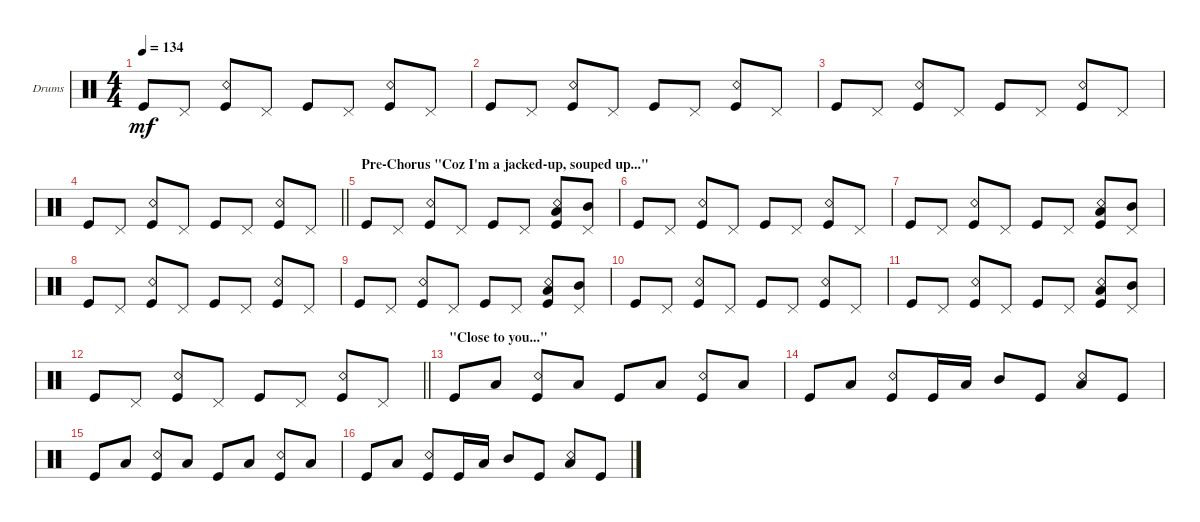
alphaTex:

\bracketExtendMode groupsimilarinstruments
\firstSystemTrackNameOrientation horizontal
\otherSystemsTrackNameOrientation horizontal
\track ("Nicky Bomba" "Drums") {instrument percussion}
\staff {score}
\articulation defaults
\ts (4 4)
\tempo 134
\clef neutral
\scale
0.333333
\ks c "Kick (hit)".8{dy mf} "Pedal Hi-Hat (hit)".8
("Kick (hit)" "Snare (rim shot)").8 "Pedal Hi-Hat (hit)".8 "Kick (hit)".8 "Pedal Hi-Hat (hit)".8 ("Kick (hit)" "Snare (rim shot)").8 "Pedal Hi-Hat (hit)".8 |
\scale
0.333333 "Kick (hit)".8 "Pedal Hi-Hat (hit)".8 ("Kick (hit)" "Snare (rim shot)").8 "Pedal Hi-Hat (hit)".8 "Kick (hit)".8 "Pedal Hi-Hat (hit)".8 ("Kick (hit)" "Snare (rim shot)").8 "Pedal Hi-Hat (hit)".8 |
\scale
0.333333 "Kick (hit)".8 "Pedal Hi-Hat (hit)".8 ("Kick (hit)" "Snare (rim shot)").8 "Pedal Hi-Hat (hit)".8 "Kick (hit)".8 "Pedal Hi-Hat (hit)".8 ("Kick (hit)" "Snare (rim shot)").8 "Pedal Hi-Hat (hit)".8 |
\scale
0.333333
\barLineRight lightlight "Kick (hit)".8 "Pedal Hi-Hat (hit)".8
("Kick (hit)" "Snare (rim shot)").8 "Pedal Hi-Hat (hit)".8 "Kick (hit)".8 "Pedal Hi-Hat (hit)".8 ("Kick (hit)" "Snare (rim shot)").8 "Pedal Hi-Hat (hit)".8 |
\section ("" "Pre-Chorus \"Coz I'm a jacked-up, souped up...\"")
\scale
0.333333 "Kick (hit)".8 "Pedal Hi-Hat (hit)".8 ("Kick (hit)" "Snare (rim shot)").8 "Pedal Hi-Hat (hit)".8 "Kick (hit)".8 "Pedal Hi-Hat (hit)".8 ("Kick (hit)" "Snare (rim shot)" "Low Tom (hit)").8 ("Pedal Hi-Hat (hit)" "Mid Tom (hit)").8 |
\scale
0.333333 "Kick (hit)".8 "Pedal Hi-Hat (hit)".8 ("Kick (hit)" "Snare (rim shot)").8 "Pedal Hi-Hat (hit)".8 "Kick (hit)".8 "Pedal Hi-Hat (hit)".8 ("Kick (hit)" "Snare (rim shot)").8 "Pedal Hi-Hat (hit)".8 |
\scale
0.333333 "Kick (hit)".8 "Pedal Hi-Hat (hit)".8 ("Kick (hit)" "Snare (rim shot)").8 "Pedal Hi-Hat (hit)".8 "Kick (hit)".8 "Pedal Hi-Hat (hit)".8 ("Kick (hit)" "Snare (rim shot)" "Low Tom (hit)").8 ("Pedal Hi-Hat (hit)" "Mid Tom (hit)").8 |
\scale
0.333333 "Kick (hit)".8 "Pedal Hi-Hat (hit)".8 ("Kick (hit)" "Snare (rim shot)").8 "Pedal Hi-Hat (hit)".8 "Kick (hit)".8 "Pedal Hi-Hat (hit)".8 ("Kick (hit)" "Snare (rim shot)").8 "Pedal Hi-Hat (hit)".8 |
\scale
0.333333 "Kick (hit)".8 "Pedal Hi-Hat (hit)".8 ("Kick (hit)" "Snare (rim shot)").8 "Pedal Hi-Hat (hit)".8 "Kick (hit)".8 "Pedal Hi-Hat (hit)".8 ("Kick (hit)" "Snare (rim shot)" "Low Tom (hit)").8 ("Pedal Hi-Hat (hit)" "Mid Tom (hit)").8 |
\scale
0.333333 "Kick (hit)".8 "Pedal Hi-Hat (hit)".8 ("Kick (hit)" "Snare (rim shot)").8 "Pedal Hi-Hat (hit)".8 "Kick (hit)".8 "Pedal Hi-Hat (hit)".8 ("Kick (hit)" "Snare (rim shot)").8 "Pedal Hi-Hat (hit)".8 |
\scale
0.333333 "Kick (hit)".8 "Pedal Hi-Hat (hit)".8 ("Kick (hit)" "Snare (rim shot)").8 "Pedal Hi-Hat (hit)".8 "Kick (hit)".8 "Pedal Hi-Hat (hit)".8 ("Kick (hit)" "Snare (rim shot)" "Low Tom (hit)").8 ("Pedal Hi-Hat (hit)" "Mid Tom (hit)").8 |
\scale
0.333333
\barLineRight lightlight "Kick (hit)".8 "Pedal Hi-Hat (hit)".8
("Kick (hit)" "Snare (rim shot)").8 "Pedal Hi-Hat (hit)".8 "Kick (hit)".8 "Pedal Hi-Hat (hit)".8 ("Kick (hit)" "Snare (rim shot)").8 "Pedal Hi-Hat (hit)".8 |
\section ("" "\"Close to you...\"")
\scale
0.333333 "Kick (hit)".8 "Low Tom (hit)".8 ("Kick (hit)" "Snare (rim shot)").8 "Low Tom (hit)".8 "Kick (hit)".8 "Low Tom (hit)".8 ("Kick (hit)" "Snare (rim shot)").8 "Low Tom (hit)".8 |
\scale
0.333333 "Kick (hit)".8 "Low Tom (hit)".8 ("Kick (hit)" "Snare (rim shot)").8 "Kick (hit)".16 "Low Tom (hit)".16 "Mid Tom (hit)".8 "Kick (hit)".8 ("Low Tom (hit)" "Snare (rim shot)").8 "Kick (hit)".8 |
\scale
0.333333 "Kick (hit)".8 "Low Tom (hit)".8 ("Kick (hit)" "Snare (rim shot)").8 "Low Tom (hit)".8 "Kick (hit)".8 "Low Tom (hit)".8 ("Kick (hit)" "Snare (rim shot)").8 "Low Tom (hit)".8 |
\scale
0.333333 "Kick (hit)".8 "Low Tom (hit)".8 ("Kick (hit)" "Snare (rim shot)").8 "Kick (hit)".16 "Low Tom (hit)".16 "Mid Tom (hit)".8 "Kick (hit)".8 ("Low Tom (hit)" "Snare (rim shot)").8 "Kick (hit)".8
